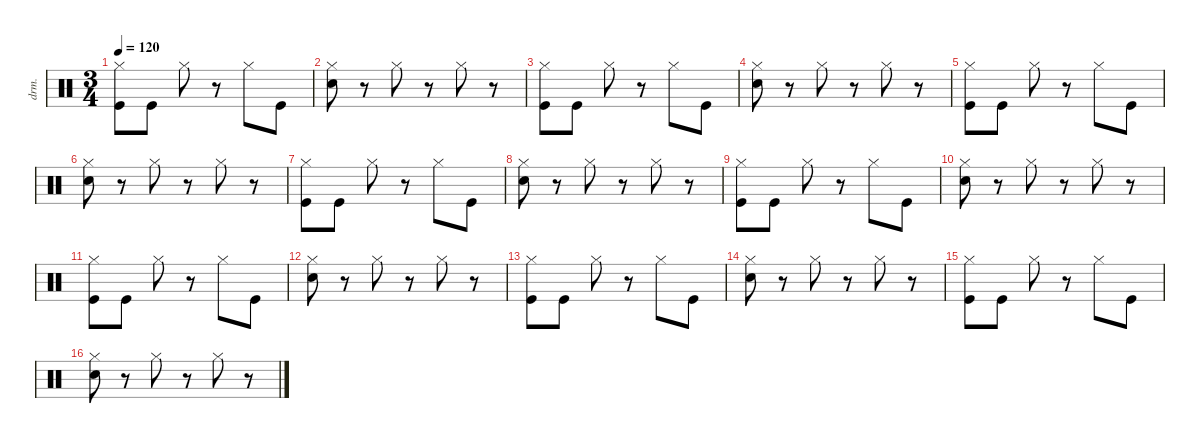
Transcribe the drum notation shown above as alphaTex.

\defaultSystemsLayout 4
\hideDynamics
\bracketExtendMode nobrackets
\otherSystemsTrackNameOrientation horizontal
\track ("Drumkit" "drm.") {instrument percussion}
\staff {score}
\articulation defaults
\ts (3 4)
\beaming (8 2 2 2)
\tempo 120
\clef neutral
\ks c
("Kick (hit)" "Hi-Hat (closed)").8{dy mf} "Kick (hit)".8 "Hi-Hat (closed)".8 r.8{beam Down} "Hi-Hat (closed)".8 "Kick (hit)".8 |
("Hi-Hat (closed)" "Snare (hit) 2").8 r.8{beam Down} "Hi-Hat (closed)".8 r.8{beam Down} "Hi-Hat (closed)".8 r.8{beam Down} |
("Kick (hit)" "Hi-Hat (closed)").8 "Kick (hit)".8 "Hi-Hat (closed)".8 r.8{beam Down} "Hi-Hat (closed)".8 "Kick (hit)".8 |
("Hi-Hat (closed)" "Snare (hit) 2").8 r.8{beam Down} "Hi-Hat (closed)".8 r.8{beam Down} "Hi-Hat (closed)".8 r.8{beam Down} |
("Kick (hit)" "Hi-Hat (closed)").8 "Kick (hit)".8 "Hi-Hat (closed)".8 r.8{beam Down} "Hi-Hat (closed)".8 "Kick (hit)".8 |
("Hi-Hat (closed)" "Snare (hit) 2").8 r.8{beam Down} "Hi-Hat (closed)".8 r.8{beam Down} "Hi-Hat (closed)".8 r.8{beam Down} |
("Kick (hit)" "Hi-Hat (closed)").8 "Kick (hit)".8 "Hi-Hat (closed)".8 r.8{beam Down} "Hi-Hat (closed)".8 "Kick (hit)".8 |
("Hi-Hat (closed)" "Snare (hit) 2").8 r.8{beam Down} "Hi-Hat (closed)".8 r.8{beam Down} "Hi-Hat (closed)".8 r.8{beam Down} |
("Kick (hit)" "Hi-Hat (closed)").8 "Kick (hit)".8 "Hi-Hat (closed)".8 r.8{beam Down} "Hi-Hat (closed)".8 "Kick (hit)".8 |
("Hi-Hat (closed)" "Snare (hit) 2").8 r.8{beam Down} "Hi-Hat (closed)".8 r.8{beam Down} "Hi-Hat (closed)".8 r.8{beam Down} |
("Kick (hit)" "Hi-Hat (closed)").8 "Kick (hit)".8 "Hi-Hat (closed)".8 r.8{beam Down} "Hi-Hat (closed)".8 "Kick (hit)".8 |
("Hi-Hat (closed)" "Snare (hit) 2").8 r.8{beam Down} "Hi-Hat (closed)".8 r.8{beam Down} "Hi-Hat (closed)".8 r.8{beam Down} |
("Kick (hit)" "Hi-Hat (closed)").8 "Kick (hit)".8 "Hi-Hat (closed)".8 r.8{beam Down} "Hi-Hat (closed)".8 "Kick (hit)".8 |
("Hi-Hat (closed)" "Snare (hit) 2").8 r.8{beam Down} "Hi-Hat (closed)".8 r.8{beam Down} "Hi-Hat (closed)".8 r.8{beam Down} |
("Kick (hit)" "Hi-Hat (closed)").8 "Kick (hit)".8 "Hi-Hat (closed)".8 r.8{beam Down} "Hi-Hat (closed)".8 "Kick (hit)".8 |
("Hi-Hat (closed)" "Snare (hit) 2").8 r.8{beam Down} "Hi-Hat (closed)".8 r.8{beam Down} "Hi-Hat (closed)".8 r.8{beam Down}
